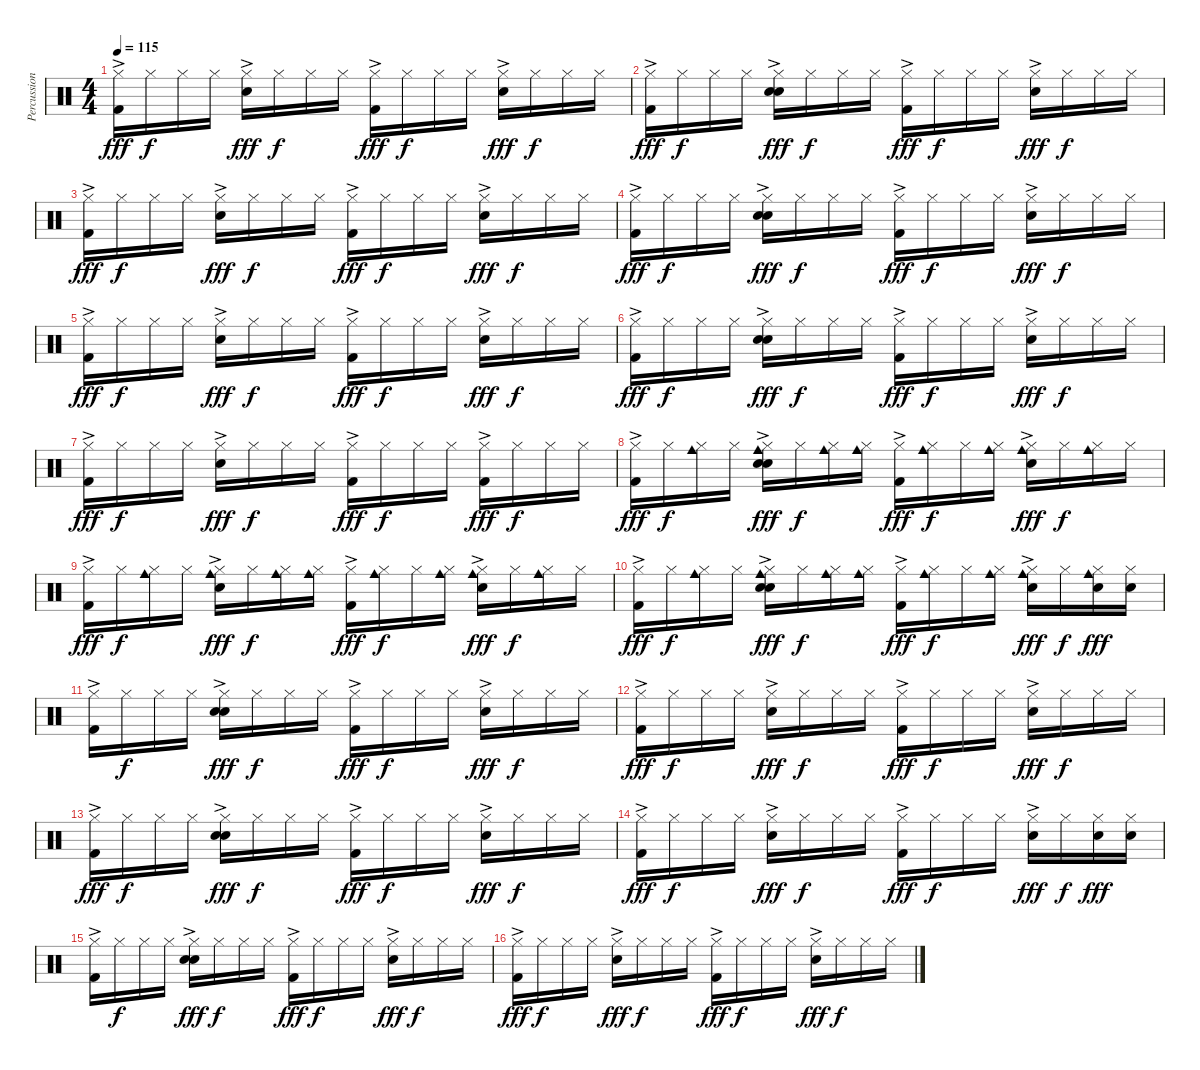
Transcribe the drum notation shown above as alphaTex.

\track ("Percussion" "Percussion") {instrument percussion}
\staff {score}
\articulation defaults
\ts (4 4)
\tempo 115
\clef neutral
\ks c
("Hi-Hat (closed)"{ac} "Kick (hit) 2").16{dy fff} "Hi-Hat (closed)".16{dy f} "Hi-Hat (closed)".16 "Hi-Hat (closed)".16 ("Hi-Hat (closed)"{ac} "Snare (hit) 2").16{dy fff} "Hi-Hat (closed)".16{dy f} "Hi-Hat (closed)".16 "Hi-Hat (closed)".16 ("Hi-Hat (closed)"{ac} "Kick (hit) 2").16{dy fff} "Hi-Hat (closed)".16{dy f} "Hi-Hat (closed)".16 "Hi-Hat (closed)".16 ("Hi-Hat (closed)"{ac} "Snare (hit) 2").16{dy fff} "Hi-Hat (closed)".16{dy f} "Hi-Hat (closed)".16 "Hi-Hat (closed)".16 |
("Hi-Hat (closed)"{ac} "Kick (hit) 2").16{dy fff} "Hi-Hat (closed)".16{dy f} "Hi-Hat (closed)".16 "Hi-Hat (closed)".16 ("Hi-Hat (closed)"{ac} "Snare (hit) 2" "Hand Clap (hit)").16{dy fff} "Hi-Hat (closed)".16{dy f} "Hi-Hat (closed)".16 "Hi-Hat (closed)".16 ("Hi-Hat (closed)"{ac} "Kick (hit) 2").16{dy fff} "Hi-Hat (closed)".16{dy f} "Hi-Hat (closed)".16 "Hi-Hat (closed)".16 ("Hi-Hat (closed)"{ac} "Snare (hit) 2").16{dy fff} "Hi-Hat (closed)".16{dy f} "Hi-Hat (closed)".16 "Hi-Hat (closed)".16 |
("Hi-Hat (closed)"{ac} "Kick (hit) 2").16{dy fff} "Hi-Hat (closed)".16{dy f} "Hi-Hat (closed)".16 "Hi-Hat (closed)".16 ("Hi-Hat (closed)"{ac} "Snare (hit) 2").16{dy fff} "Hi-Hat (closed)".16{dy f} "Hi-Hat (closed)".16 "Hi-Hat (closed)".16 ("Hi-Hat (closed)"{ac} "Kick (hit) 2").16{dy fff} "Hi-Hat (closed)".16{dy f} "Hi-Hat (closed)".16 "Hi-Hat (closed)".16 ("Hi-Hat (closed)"{ac} "Snare (hit) 2").16{dy fff} "Hi-Hat (closed)".16{dy f} "Hi-Hat (closed)".16 "Hi-Hat (closed)".16 |
("Hi-Hat (closed)"{ac} "Kick (hit) 2").16{dy fff} "Hi-Hat (closed)".16{dy f} "Hi-Hat (closed)".16 "Hi-Hat (closed)".16 ("Hi-Hat (closed)"{ac} "Snare (hit) 2" "Hand Clap (hit)").16{dy fff} "Hi-Hat (closed)".16{dy f} "Hi-Hat (closed)".16 "Hi-Hat (closed)".16 ("Hi-Hat (closed)"{ac} "Kick (hit) 2").16{dy fff} "Hi-Hat (closed)".16{dy f} "Hi-Hat (closed)".16 "Hi-Hat (closed)".16 ("Hi-Hat (closed)"{ac} "Snare (hit) 2").16{dy fff} "Hi-Hat (closed)".16{dy f} "Hi-Hat (closed)".16 "Hi-Hat (closed)".16 |
("Hi-Hat (closed)"{ac} "Kick (hit) 2").16{dy fff} "Hi-Hat (closed)".16{dy f} "Hi-Hat (closed)".16 "Hi-Hat (closed)".16 ("Hi-Hat (closed)"{ac} "Snare (hit) 2").16{dy fff} "Hi-Hat (closed)".16{dy f} "Hi-Hat (closed)".16 "Hi-Hat (closed)".16 ("Hi-Hat (closed)"{ac} "Kick (hit) 2").16{dy fff} "Hi-Hat (closed)".16{dy f} "Hi-Hat (closed)".16 "Hi-Hat (closed)".16 ("Hi-Hat (closed)"{ac} "Snare (hit) 2").16{dy fff} "Hi-Hat (closed)".16{dy f} "Hi-Hat (closed)".16 "Hi-Hat (closed)".16 |
("Hi-Hat (closed)"{ac} "Kick (hit) 2").16{dy fff} "Hi-Hat (closed)".16{dy f} "Hi-Hat (closed)".16 "Hi-Hat (closed)".16 ("Hi-Hat (closed)"{ac} "Snare (hit) 2" "Hand Clap (hit)").16{dy fff} "Hi-Hat (closed)".16{dy f} "Hi-Hat (closed)".16 "Hi-Hat (closed)".16 ("Hi-Hat (closed)"{ac} "Kick (hit) 2").16{dy fff} "Hi-Hat (closed)".16{dy f} "Hi-Hat (closed)".16 "Hi-Hat (closed)".16 ("Hi-Hat (closed)"{ac} "Snare (hit) 2").16{dy fff} "Hi-Hat (closed)".16{dy f} "Hi-Hat (closed)".16 "Hi-Hat (closed)".16 |
("Hi-Hat (closed)"{ac} "Kick (hit) 2").16{dy fff} "Hi-Hat (closed)".16{dy f} "Hi-Hat (closed)".16 "Hi-Hat (closed)".16 ("Hi-Hat (closed)"{ac} "Snare (hit) 2").16{dy fff} "Hi-Hat (closed)".16{dy f} "Hi-Hat (closed)".16 "Hi-Hat (closed)".16 ("Hi-Hat (closed)"{ac} "Kick (hit) 2").16{dy fff} "Hi-Hat (closed)".16{dy f} "Hi-Hat (closed)".16 "Hi-Hat (closed)".16 ("Hi-Hat (closed)"{ac} "Kick (hit) 2").16{dy fff} "Hi-Hat (closed)".16{dy f} "Hi-Hat (closed)".16 "Hi-Hat (closed)".16 |
("Hi-Hat (closed)"{ac} "Kick (hit) 2").16{dy fff} "Hi-Hat (closed)".16{dy f} ("Hi-Hat (closed)" "Cowbell medium (hit)").16 "Hi-Hat (closed)".16 ("Hi-Hat (closed)"{ac} "Snare (hit) 2" "Cowbell medium (hit)" "Hand Clap (hit)").16{dy fff} "Hi-Hat (closed)".16{dy f} ("Hi-Hat (closed)" "Cowbell medium (hit)").16 ("Hi-Hat (closed)" "Cowbell medium (hit)").16 ("Hi-Hat (closed)"{ac} "Kick (hit) 2").16{dy fff} ("Hi-Hat (closed)" "Cowbell medium (hit)").16{dy f} "Hi-Hat (closed)".16 ("Hi-Hat (closed)" "Cowbell medium (hit)").16 ("Hi-Hat (closed)"{ac} "Snare (hit) 2" "Cowbell medium (hit)").16{dy fff} "Hi-Hat (closed)".16{dy f} ("Hi-Hat (closed)" "Cowbell medium (hit)").16 "Hi-Hat (closed)".16 |
("Hi-Hat (closed)"{ac} "Kick (hit) 2").16{dy fff} "Hi-Hat (closed)".16{dy f} ("Hi-Hat (closed)" "Cowbell medium (hit)").16 "Hi-Hat (closed)".16 ("Hi-Hat (closed)"{ac} "Snare (hit) 2" "Cowbell medium (hit)").16{dy fff} "Hi-Hat (closed)".16{dy f} ("Hi-Hat (closed)" "Cowbell medium (hit)").16 ("Hi-Hat (closed)" "Cowbell medium (hit)").16 ("Hi-Hat (closed)"{ac} "Kick (hit) 2").16{dy fff} ("Hi-Hat (closed)" "Cowbell medium (hit)").16{dy f} "Hi-Hat (closed)".16 ("Hi-Hat (closed)" "Cowbell medium (hit)").16 ("Hi-Hat (closed)"{ac} "Snare (hit) 2" "Cowbell medium (hit)").16{dy fff} "Hi-Hat (closed)".16{dy f} ("Hi-Hat (closed)" "Cowbell medium (hit)").16 "Hi-Hat (closed)".16 |
("Hi-Hat (closed)"{ac} "Kick (hit) 2").16{dy fff} "Hi-Hat (closed)".16{dy f} ("Hi-Hat (closed)" "Cowbell medium (hit)").16 "Hi-Hat (closed)".16 ("Hi-Hat (closed)"{ac} "Snare (hit) 2" "Cowbell medium (hit)" "Hand Clap (hit)").16{dy fff} "Hi-Hat (closed)".16{dy f} ("Hi-Hat (closed)" "Cowbell medium (hit)").16 ("Hi-Hat (closed)" "Cowbell medium (hit)").16 ("Hi-Hat (closed)"{ac} "Kick (hit) 2").16{dy fff} ("Hi-Hat (closed)" "Cowbell medium (hit)").16{dy f} "Hi-Hat (closed)".16 ("Hi-Hat (closed)" "Cowbell medium (hit)").16 ("Hi-Hat (closed)"{ac} "Snare (hit) 2" "Cowbell medium (hit)").16{dy fff} "Hi-Hat (closed)".16{dy f} ("Hi-Hat (closed)" "Snare (hit) 2" "Cowbell medium (hit)").16{dy fff} ("Hi-Hat (closed)" "Snare (hit) 2").16 |
("Hi-Hat (closed)"{ac} "Kick (hit) 2").16 "Hi-Hat (closed)".16{dy f} "Hi-Hat (closed)".16 "Hi-Hat (closed)".16 ("Hi-Hat (closed)"{ac} "Snare (hit) 2" "Hand Clap (hit)").16{dy fff} "Hi-Hat (closed)".16{dy f} "Hi-Hat (closed)".16 "Hi-Hat (closed)".16 ("Hi-Hat (closed)"{ac} "Kick (hit) 2").16{dy fff} "Hi-Hat (closed)".16{dy f} "Hi-Hat (closed)".16 "Hi-Hat (closed)".16 ("Hi-Hat (closed)"{ac} "Snare (hit) 2").16{dy fff} "Hi-Hat (closed)".16{dy f} "Hi-Hat (closed)".16 "Hi-Hat (closed)".16 |
("Hi-Hat (closed)"{ac} "Kick (hit) 2").16{dy fff} "Hi-Hat (closed)".16{dy f} "Hi-Hat (closed)".16 "Hi-Hat (closed)".16 ("Hi-Hat (closed)"{ac} "Snare (hit) 2").16{dy fff} "Hi-Hat (closed)".16{dy f} "Hi-Hat (closed)".16 "Hi-Hat (closed)".16 ("Hi-Hat (closed)"{ac} "Kick (hit) 2").16{dy fff} "Hi-Hat (closed)".16{dy f} "Hi-Hat (closed)".16 "Hi-Hat (closed)".16 ("Hi-Hat (closed)"{ac} "Snare (hit) 2").16{dy fff} "Hi-Hat (closed)".16{dy f} "Hi-Hat (closed)".16 "Hi-Hat (closed)".16 |
("Hi-Hat (closed)"{ac} "Kick (hit) 2").16{dy fff} "Hi-Hat (closed)".16{dy f} "Hi-Hat (closed)".16 "Hi-Hat (closed)".16 ("Hi-Hat (closed)"{ac} "Snare (hit) 2" "Hand Clap (hit)").16{dy fff} "Hi-Hat (closed)".16{dy f} "Hi-Hat (closed)".16 "Hi-Hat (closed)".16 ("Hi-Hat (closed)"{ac} "Kick (hit) 2").16{dy fff} "Hi-Hat (closed)".16{dy f} "Hi-Hat (closed)".16 "Hi-Hat (closed)".16 ("Hi-Hat (closed)"{ac} "Snare (hit) 2").16{dy fff} "Hi-Hat (closed)".16{dy f} "Hi-Hat (closed)".16 "Hi-Hat (closed)".16 |
("Hi-Hat (closed)"{ac} "Kick (hit) 2").16{dy fff} "Hi-Hat (closed)".16{dy f} "Hi-Hat (closed)".16 "Hi-Hat (closed)".16 ("Hi-Hat (closed)"{ac} "Snare (hit) 2").16{dy fff} "Hi-Hat (closed)".16{dy f} "Hi-Hat (closed)".16 "Hi-Hat (closed)".16 ("Hi-Hat (closed)"{ac} "Kick (hit) 2").16{dy fff} "Hi-Hat (closed)".16{dy f} "Hi-Hat (closed)".16 "Hi-Hat (closed)".16 ("Hi-Hat (closed)"{ac} "Snare (hit) 2").16{dy fff} "Hi-Hat (closed)".16{dy f} ("Hi-Hat (closed)" "Snare (hit) 2").16{dy fff} ("Hi-Hat (closed)" "Snare (hit) 2").16 |
("Hi-Hat (closed)"{ac} "Kick (hit) 2").16 "Hi-Hat (closed)".16{dy f} "Hi-Hat (closed)".16 "Hi-Hat (closed)".16 ("Hi-Hat (closed)"{ac} "Snare (hit) 2" "Hand Clap (hit)").16{dy fff} "Hi-Hat (closed)".16{dy f} "Hi-Hat (closed)".16 "Hi-Hat (closed)".16 ("Hi-Hat (closed)"{ac} "Kick (hit) 2").16{dy fff} "Hi-Hat (closed)".16{dy f} "Hi-Hat (closed)".16 "Hi-Hat (closed)".16 ("Hi-Hat (closed)"{ac} "Snare (hit) 2").16{dy fff} "Hi-Hat (closed)".16{dy f} "Hi-Hat (closed)".16 "Hi-Hat (closed)".16 |
("Hi-Hat (closed)"{ac} "Kick (hit) 2").16{dy fff} "Hi-Hat (closed)".16{dy f} "Hi-Hat (closed)".16 "Hi-Hat (closed)".16 ("Hi-Hat (closed)"{ac} "Snare (hit) 2").16{dy fff} "Hi-Hat (closed)".16{dy f} "Hi-Hat (closed)".16 "Hi-Hat (closed)".16 ("Hi-Hat (closed)"{ac} "Kick (hit) 2").16{dy fff} "Hi-Hat (closed)".16{dy f} "Hi-Hat (closed)".16 "Hi-Hat (closed)".16 ("Hi-Hat (closed)"{ac} "Snare (hit) 2").16{dy fff} "Hi-Hat (closed)".16{dy f} "Hi-Hat (closed)".16 "Hi-Hat (closed)".16
